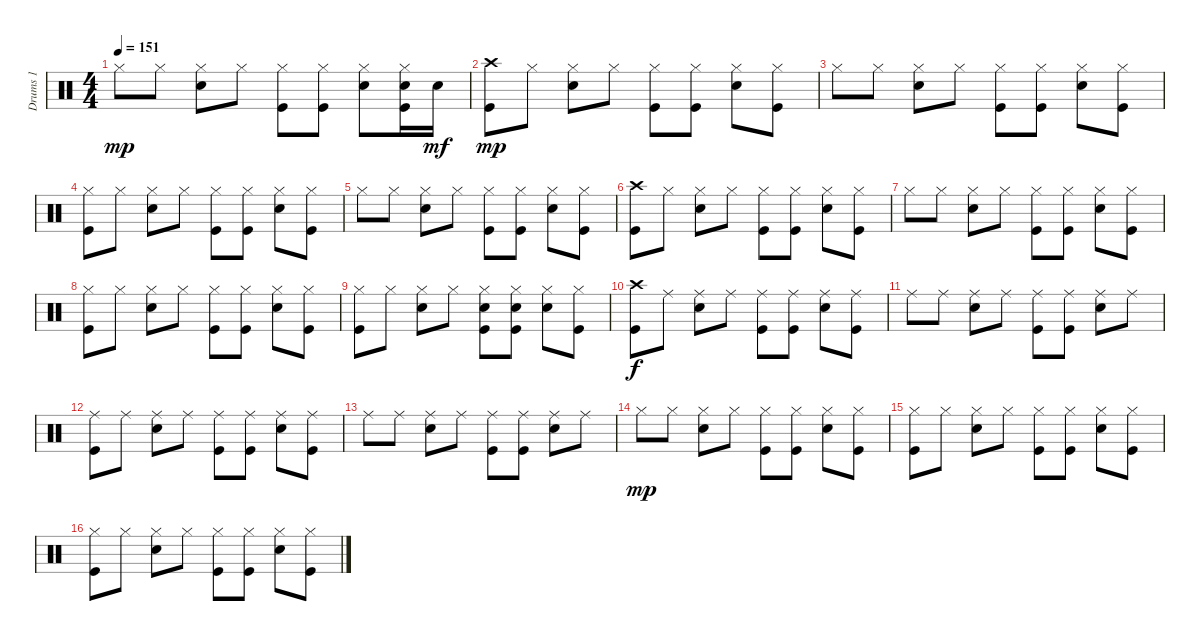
\track ("Drums 1" "Drums 1") {instrument percussion}
\staff {score}
\articulation defaults
\ts (4 4)
\tempo 151
\clef neutral
\ks c "Hi-Hat (closed)".8{dy mp} "Hi-Hat (closed)".8
("Hi-Hat (closed)" "Snare (hit) 2").8 "Hi-Hat (closed)".8 ("Kick (hit)" "Hi-Hat (closed)").8 ("Kick (hit)" "Hi-Hat (closed)").8 ("Snare (hit) 2" "Hi-Hat (closed)").8 ("Snare (hit) 2" "Hi-Hat (closed)" "Kick (hit)").16 "Snare (hit) 2".16{dy mf} |
("Crash high (hit)" "Kick (hit)").8{dy mp} "Hi-Hat (closed)".8 ("Hi-Hat (closed)" "Snare (hit) 2").8 "Hi-Hat (closed)".8 ("Hi-Hat (closed)" "Kick (hit)").8 ("Kick (hit)" "Hi-Hat (closed)").8 ("Hi-Hat (closed)" "Snare (hit) 2").8 ("Hi-Hat (closed)" "Kick (hit)").8 |
"Hi-Hat (closed)".8 "Hi-Hat (closed)".8 ("Hi-Hat (closed)" "Snare (hit) 2").8 "Hi-Hat (closed)".8 ("Kick (hit)" "Hi-Hat (closed)").8 ("Kick (hit)" "Hi-Hat (closed)").8 ("Snare (hit) 2" "Hi-Hat (closed)").8 ("Hi-Hat (closed)" "Kick (hit)").8 |
("Hi-Hat (closed)" "Kick (hit)").8 "Hi-Hat (closed)".8 ("Hi-Hat (closed)" "Snare (hit) 2").8 "Hi-Hat (closed)".8 ("Hi-Hat (closed)" "Kick (hit)").8 ("Kick (hit)" "Hi-Hat (closed)").8 ("Hi-Hat (closed)" "Snare (hit) 2").8 ("Hi-Hat (closed)" "Kick (hit)").8 |
"Hi-Hat (closed)".8 "Hi-Hat (closed)".8 ("Hi-Hat (closed)" "Snare (hit) 2").8 "Hi-Hat (closed)".8 ("Kick (hit)" "Hi-Hat (closed)").8 ("Kick (hit)" "Hi-Hat (closed)").8 ("Snare (hit) 2" "Hi-Hat (closed)").8 ("Hi-Hat (closed)" "Kick (hit)").8 |
("Crash high (hit)" "Kick (hit)").8 "Hi-Hat (closed)".8 ("Hi-Hat (closed)" "Snare (hit) 2").8 "Hi-Hat (closed)".8 ("Hi-Hat (closed)" "Kick (hit)").8 ("Kick (hit)" "Hi-Hat (closed)").8 ("Hi-Hat (closed)" "Snare (hit) 2").8 ("Hi-Hat (closed)" "Kick (hit)").8 |
"Hi-Hat (closed)".8 "Hi-Hat (closed)".8 ("Hi-Hat (closed)" "Snare (hit) 2").8 "Hi-Hat (closed)".8 ("Kick (hit)" "Hi-Hat (closed)").8 ("Kick (hit)" "Hi-Hat (closed)").8 ("Snare (hit) 2" "Hi-Hat (closed)").8 ("Hi-Hat (closed)" "Kick (hit)").8 |
("Hi-Hat (closed)" "Kick (hit)").8 "Hi-Hat (closed)".8 ("Hi-Hat (closed)" "Snare (hit) 2").8 "Hi-Hat (closed)".8 ("Hi-Hat (closed)" "Kick (hit)").8 ("Kick (hit)" "Hi-Hat (closed)").8 ("Hi-Hat (closed)" "Snare (hit) 2").8 ("Hi-Hat (closed)" "Kick (hit)").8 |
("Hi-Hat (closed)" "Kick (hit)").8 "Hi-Hat (closed)".8 ("Hi-Hat (closed)" "Snare (hit) 2").8 "Hi-Hat (closed)".8 ("Hi-Hat (closed)" "Kick (hit)" "Snare (hit) 2").8 ("Kick (hit)" "Snare (hit) 2" "Hi-Hat (closed)").8 ("Hi-Hat (closed)" "Snare (hit) 2").8 ("Hi-Hat (closed)" "Kick (hit)").8 |
("Crash high (hit)" "Kick (hit)").8{dy f} "Ride (middle)".8 ("Snare (hit) 2" "Ride (middle)").8 "Ride (middle)".8 ("Ride (middle)" "Kick (hit)").8 ("Kick (hit)" "Ride (middle)").8 ("Snare (hit) 2" "Ride (middle)").8 ("Ride (middle)" "Kick (hit)").8 |
"Ride (middle)".8 "Ride (middle)".8 ("Ride (middle)" "Snare (hit) 2").8 "Ride (middle)".8 ("Ride (middle)" "Kick (hit)").8 ("Kick (hit)" "Ride (middle)").8 ("Ride (middle)" "Snare (hit) 2").8 "Ride (middle)".8 |
("Ride (middle)" "Kick (hit)").8 "Ride (middle)".8 ("Snare (hit) 2" "Ride (middle)").8 "Ride (middle)".8 ("Ride (middle)" "Kick (hit)").8 ("Kick (hit)" "Ride (middle)").8 ("Snare (hit) 2" "Ride (middle)").8 ("Ride (middle)" "Kick (hit)").8 |
"Ride (middle)".8 "Ride (middle)".8 ("Ride (middle)" "Snare (hit) 2").8 "Ride (middle)".8 ("Ride (middle)" "Kick (hit)").8 ("Kick (hit)" "Ride (middle)").8 ("Ride (middle)" "Snare (hit) 2").8 "Ride (middle)".8 |
"Hi-Hat (closed)".8{dy mp} "Hi-Hat (closed)".8 ("Hi-Hat (closed)" "Snare (hit) 2").8 "Hi-Hat (closed)".8 ("Kick (hit)" "Hi-Hat (closed)").8 ("Kick (hit)" "Hi-Hat (closed)").8 ("Snare (hit) 2" "Hi-Hat (closed)").8 ("Hi-Hat (closed)" "Kick (hit)").8 |
("Hi-Hat (closed)" "Kick (hit)").8 "Hi-Hat (closed)".8 ("Hi-Hat (closed)" "Snare (hit) 2").8 "Hi-Hat (closed)".8 ("Hi-Hat (closed)" "Kick (hit)").8 ("Kick (hit)" "Hi-Hat (closed)").8 ("Hi-Hat (closed)" "Snare (hit) 2").8 ("Hi-Hat (closed)" "Kick (hit)").8 |
("Hi-Hat (closed)" "Kick (hit)").8 "Hi-Hat (closed)".8 ("Hi-Hat (closed)" "Snare (hit) 2").8 "Hi-Hat (closed)".8 ("Hi-Hat (closed)" "Kick (hit)").8 ("Kick (hit)" "Hi-Hat (closed)").8 ("Hi-Hat (closed)" "Snare (hit) 2").8 ("Hi-Hat (closed)" "Kick (hit)").8
